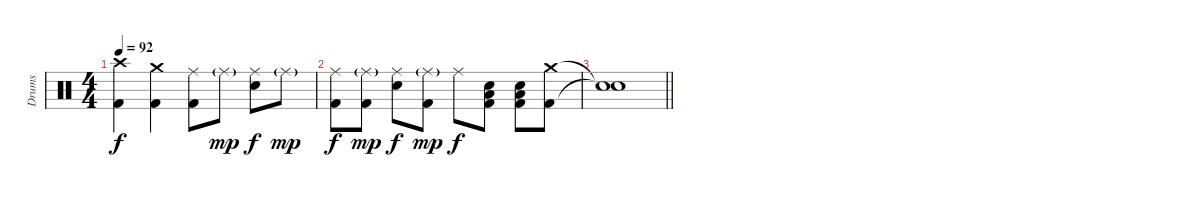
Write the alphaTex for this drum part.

\track ("Drums" "Drums") {instrument percussion}
\staff {score}
\articulation defaults
\ts (4 4)
\tempo 92
\clef neutral
\ks c
("Crash high (hit)" "Kick (hit) 2").4{dy f} ("Crash medium (hit)" "Kick (hit) 2").4 ("Ride (middle)" "Kick (hit) 2").8 "Ride (middle)"{g}.8{dy mp} ("Ride (middle)" "Electric Snare (hit)").8{dy f} "Ride (middle)"{g}.8{dy mp} |
("Ride (middle)" "Kick (hit) 2").8{dy f} ("Ride (middle)"{g} "Kick (hit) 2").8{dy mp} ("Ride (middle)" "Electric Snare (hit)").8{dy f} ("Ride (middle)"{g} "Kick (hit) 2").8{dy mp} "Ride (middle)".8{dy f} ("Low Tom (hit)" "Electric Snare (hit)" "Kick (hit) 2").8 ("Low Tom (hit)" "Electric Snare (hit)" "Kick (hit) 2").8 ("Crash medium (hit)" "Kick (hit) 2").8 |
\barLineRight lightlight
("Snare (hit)"{t} "Snare (hit)"{t}).1
